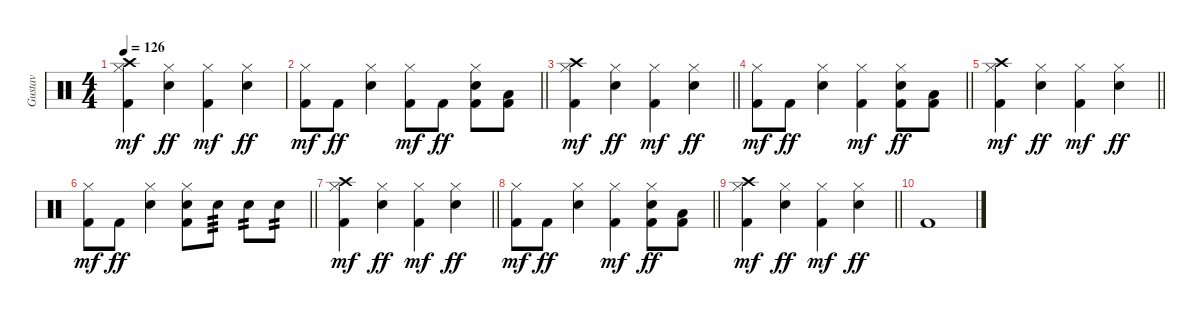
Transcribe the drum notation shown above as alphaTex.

\track ("Gustav" "Gustav") {instrument percussion}
\staff {score}
\articulation defaults
\ts (4 4)
\tempo 126
\clef neutral
\ks c
("Crash high (hit)" "Hi-Hat (closed)" "Kick (hit) 2").4{dy mf} ("Hi-Hat (closed)" "Snare (hit) 2").4{dy ff} ("Hi-Hat (closed)" "Kick (hit) 2").4{dy mf} ("Hi-Hat (closed)" "Snare (hit) 2").4{dy ff} |
\barLineRight lightlight
("Hi-Hat (closed)" "Kick (hit) 2").8{dy mf} "Kick (hit) 2".8{dy ff} ("Hi-Hat (closed)" "Snare (hit) 2").4 ("Hi-Hat (closed)" "Kick (hit) 2").8{dy mf} "Kick (hit) 2".8{dy ff} ("Hi-Hat (closed)" "Snare (hit) 2" "Kick (hit) 2").8 ("Low Tom (hit)" "Kick (hit) 2").8 |
\barLineRight lightlight
("Crash high (hit)" "Hi-Hat (closed)" "Kick (hit) 2").4{dy mf} ("Hi-Hat (closed)" "Snare (hit) 2").4{dy ff} ("Hi-Hat (closed)" "Kick (hit) 2").4{dy mf} ("Hi-Hat (closed)" "Snare (hit) 2").4{dy ff} |
\barLineRight lightlight
("Hi-Hat (closed)" "Kick (hit) 2").8{dy mf} "Kick (hit) 2".8{dy ff} ("Hi-Hat (closed)" "Snare (hit) 2").4 ("Hi-Hat (closed)" "Kick (hit) 2").4{dy mf} ("Hi-Hat (closed)" "Snare (hit) 2" "Kick (hit) 2").8{dy ff} ("Low Tom (hit)" "Kick (hit) 2").8 |
\barLineRight lightlight
("Crash high (hit)" "Hi-Hat (closed)" "Kick (hit) 2").4{dy mf} ("Hi-Hat (closed)" "Snare (hit) 2").4{dy ff} ("Hi-Hat (closed)" "Kick (hit) 2").4{dy mf} ("Hi-Hat (closed)" "Snare (hit) 2").4{dy ff} |
\barLineRight lightlight
("Hi-Hat (closed)" "Kick (hit) 2").8{dy mf} "Kick (hit) 2".8{dy ff} ("Hi-Hat (closed)" "Snare (hit) 2").4 ("Hi-Hat (closed)" "Snare (hit) 2" "Kick (hit) 2").8 "Snare (hit) 2".8{tp 3} "Snare (hit) 2".8{tp 2} "Snare (hit) 2".8{tp 2} |
\barLineRight lightlight
("Crash high (hit)" "Hi-Hat (closed)" "Kick (hit) 2").4{dy mf} ("Hi-Hat (closed)" "Snare (hit) 2").4{dy ff} ("Hi-Hat (closed)" "Kick (hit) 2").4{dy mf} ("Hi-Hat (closed)" "Snare (hit) 2").4{dy ff} |
\barLineRight lightlight
("Hi-Hat (closed)" "Kick (hit) 2").8{dy mf} "Kick (hit) 2".8{dy ff} ("Hi-Hat (closed)" "Snare (hit) 2").4 ("Hi-Hat (closed)" "Kick (hit) 2").4{dy mf} ("Hi-Hat (closed)" "Snare (hit) 2" "Kick (hit) 2").8{dy ff} ("Low Tom (hit)" "Kick (hit) 2").8 |
\barLineRight lightlight
("Crash high (hit)" "Hi-Hat (closed)" "Kick (hit) 2").4{dy mf} ("Hi-Hat (closed)" "Snare (hit) 2").4{dy ff} ("Hi-Hat (closed)" "Kick (hit) 2").4{dy mf} ("Hi-Hat (closed)" "Snare (hit) 2").4{dy ff} |
"Kick (hit) 2".1
